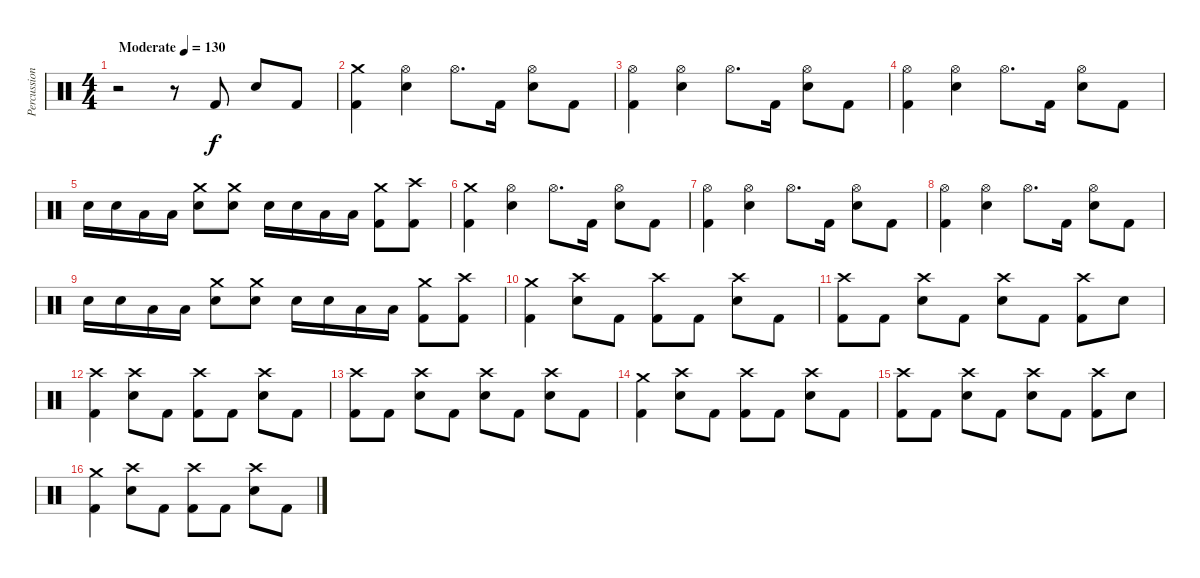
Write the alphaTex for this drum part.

\track ("Percussion" "Percussion") {instrument percussion}
\staff {score}
\articulation defaults
\ts (4 4)
\tempo (130 "Moderate")
\clef neutral
\ks c
r.2{dy f} r.8 "Kick (hit) 2".8 "Electric Snare (hit)".8 "Kick (hit) 2".8 |
("Crash medium (hit)" "Kick (hit) 2").4 ("Hi-Hat (open)" "Electric Snare (hit)").4 "Hi-Hat (open)".8{d} "Kick (hit) 2".16 ("Hi-Hat (open)" "Electric Snare (hit)").8 "Kick (hit) 2".8 |
("Hi-Hat (open)" "Kick (hit) 2").4 ("Hi-Hat (open)" "Electric Snare (hit)").4 "Hi-Hat (open)".8{d} "Kick (hit) 2".16 ("Hi-Hat (open)" "Electric Snare (hit)").8 "Kick (hit) 2".8 |
("Hi-Hat (open)" "Kick (hit) 2").4 ("Hi-Hat (open)" "Electric Snare (hit)").4 "Hi-Hat (open)".8{d} "Kick (hit) 2".16 ("Hi-Hat (open)" "Electric Snare (hit)").8 "Kick (hit) 2".8 |
"Electric Snare (hit)".16 "Electric Snare (hit)".16 "Low Tom (hit)".16 "Low Floor Tom (hit)".16 ("Crash medium (hit)" "Electric Snare (hit)").8 ("Crash medium (hit)" "Electric Snare (hit)").8 "Electric Snare (hit)".16 "Electric Snare (hit)".16 "Low Tom (hit)".16 "Low Floor Tom (hit)".16 ("Crash medium (hit)" "Kick (hit) 2").8 ("Crash high (hit)" "Kick (hit) 2").8 |
("Crash medium (hit)" "Kick (hit) 2").4 ("Hi-Hat (open)" "Electric Snare (hit)").4 "Hi-Hat (open)".8{d} "Kick (hit) 2".16 ("Hi-Hat (open)" "Electric Snare (hit)").8 "Kick (hit) 2".8 |
("Hi-Hat (open)" "Kick (hit) 2").4 ("Hi-Hat (open)" "Electric Snare (hit)").4 "Hi-Hat (open)".8{d} "Kick (hit) 2".16 ("Hi-Hat (open)" "Electric Snare (hit)").8 "Kick (hit) 2".8 |
("Hi-Hat (open)" "Kick (hit) 2").4 ("Hi-Hat (open)" "Electric Snare (hit)").4 "Hi-Hat (open)".8{d} "Kick (hit) 2".16 ("Hi-Hat (open)" "Electric Snare (hit)").8 "Kick (hit) 2".8 |
"Electric Snare (hit)".16 "Electric Snare (hit)".16 "Low Tom (hit)".16 "Low Floor Tom (hit)".16 ("Crash medium (hit)" "Electric Snare (hit)").8 ("Crash medium (hit)" "Electric Snare (hit)").8 "Electric Snare (hit)".16 "Electric Snare (hit)".16 "Low Tom (hit)".16 "Low Floor Tom (hit)".16 ("Crash medium (hit)" "Kick (hit) 2").8 ("Crash high (hit)" "Kick (hit) 2").8 |
("Crash medium (hit)" "Kick (hit) 2").4 ("Crash high (hit)" "Electric Snare (hit)").8 "Kick (hit) 2".8 ("Crash high (hit)" "Kick (hit) 2").8 "Kick (hit) 2".8 ("Crash high (hit)" "Electric Snare (hit)").8 "Kick (hit) 2".8 |
("Crash high (hit)" "Kick (hit) 2").8 "Kick (hit) 2".8 ("Crash high (hit)" "Electric Snare (hit)").8 "Kick (hit) 2".8 ("Crash high (hit)" "Electric Snare (hit)").8 "Kick (hit) 2".8 ("Crash high (hit)" "Kick (hit) 2").8 "Electric Snare (hit)".8 |
("Crash high (hit)" "Kick (hit) 2").4 ("Crash high (hit)" "Electric Snare (hit)").8 "Kick (hit) 2".8 ("Crash high (hit)" "Kick (hit) 2").8 "Kick (hit) 2".8 ("Crash high (hit)" "Electric Snare (hit)").8 "Kick (hit) 2".8 |
("Crash high (hit)" "Kick (hit) 2").8 "Kick (hit) 2".8 ("Crash high (hit)" "Electric Snare (hit)").8 "Kick (hit) 2".8 ("Crash high (hit)" "Electric Snare (hit)").8 "Kick (hit) 2".8 ("Crash high (hit)" "Electric Snare (hit)").8 "Kick (hit) 2".8 |
("Crash medium (hit)" "Kick (hit) 2").4 ("Crash high (hit)" "Electric Snare (hit)").8 "Kick (hit) 2".8 ("Crash high (hit)" "Kick (hit) 2").8 "Kick (hit) 2".8 ("Crash high (hit)" "Electric Snare (hit)").8 "Kick (hit) 2".8 |
("Crash high (hit)" "Kick (hit) 2").8 "Kick (hit) 2".8 ("Crash high (hit)" "Electric Snare (hit)").8 "Kick (hit) 2".8 ("Crash high (hit)" "Electric Snare (hit)").8 "Kick (hit) 2".8 ("Crash high (hit)" "Kick (hit) 2").8 "Electric Snare (hit)".8 |
("Crash medium (hit)" "Kick (hit) 2").4 ("Crash high (hit)" "Electric Snare (hit)").8 "Kick (hit) 2".8 ("Crash high (hit)" "Kick (hit) 2").8 "Kick (hit) 2".8 ("Crash high (hit)" "Electric Snare (hit)").8 "Kick (hit) 2".8
